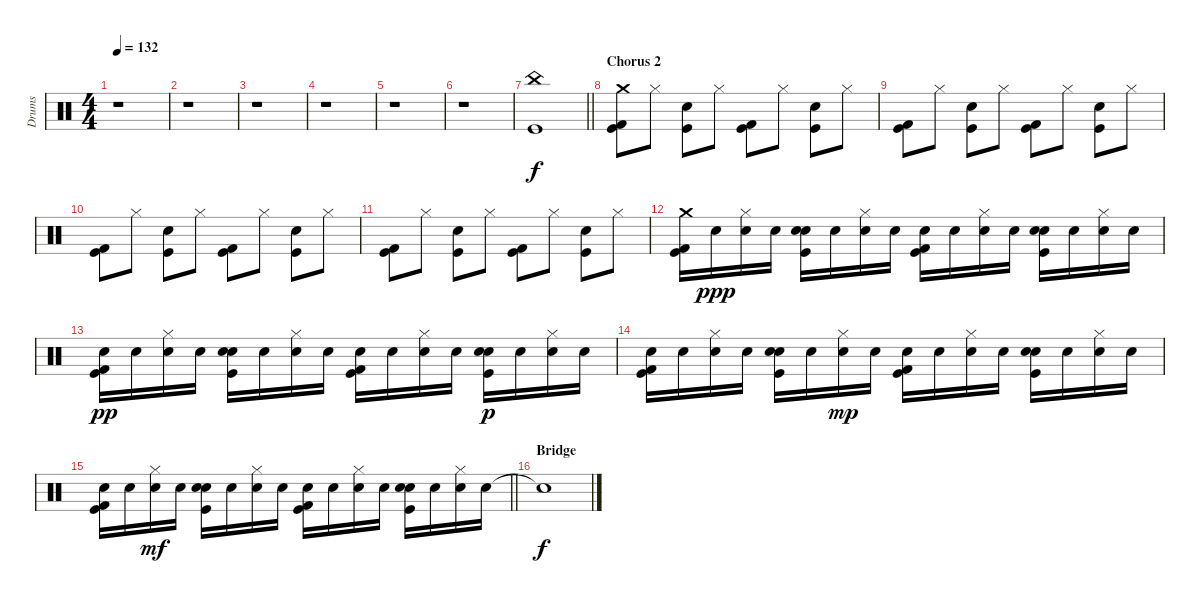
\track ("Drums" "Drums") {instrument percussion}
\staff {score}
\articulation defaults
\ts (4 4)
\tempo 132
\clef neutral
\ks c
r.1{dy f} |
r.1 |
r.1 |
r.1 |
r.1 |
r.1 |
\barLineRight lightlight
("Kick (hit)" "China (hit)").1 |
\section ("" "Chorus 2")
("Crash medium (hit)" "Kick (hit)" "Kick (hit) 2").8 "Hi-Hat (closed)".8 ("Hand Clap (hit)" "Kick (hit)").8 "Hi-Hat (closed)".8 ("Kick (hit) 2" "Kick (hit)").8 "Hi-Hat (closed)".8 ("Kick (hit)" "Hand Clap (hit)").8 "Hi-Hat (closed)".8 |
("Kick (hit) 2" "Kick (hit)").8 "Hi-Hat (closed)".8 ("Kick (hit)" "Hand Clap (hit)").8 "Hi-Hat (closed)".8 ("Kick (hit)" "Kick (hit) 2").8 "Hi-Hat (closed)".8 ("Kick (hit)" "Hand Clap (hit)").8 "Hi-Hat (closed)".8 |
("Kick (hit)" "Kick (hit) 2").8 "Hi-Hat (closed)".8 ("Hand Clap (hit)" "Kick (hit)").8 "Hi-Hat (closed)".8 ("Kick (hit)" "Kick (hit) 2").8 "Hi-Hat (closed)".8 ("Kick (hit)" "Hand Clap (hit)").8 "Hi-Hat (closed)".8 |
("Kick (hit)" "Kick (hit) 2").8 "Hi-Hat (closed)".8 ("Hand Clap (hit)" "Kick (hit)").8 "Hi-Hat (closed)".8 ("Kick (hit)" "Kick (hit) 2").8 "Hi-Hat (closed)".8 ("Kick (hit)" "Hand Clap (hit)").8 "Hi-Hat (closed)".8 |
("Crash medium (hit)" "Kick (hit)" "Kick (hit) 2").16 "Electric Snare (hit)".16{dy ppp} ("Electric Snare (hit)" "Hi-Hat (closed)").16 "Electric Snare (hit)".16 ("Electric Snare (hit)" "Hand Clap (hit)" "Kick (hit)").16 "Electric Snare (hit)".16 ("Electric Snare (hit)" "Hi-Hat (closed)").16 "Electric Snare (hit)".16 ("Electric Snare (hit)" "Kick (hit)" "Kick (hit) 2").16 "Electric Snare (hit)".16 ("Hi-Hat (closed)" "Electric Snare (hit)").16 "Electric Snare (hit)".16 ("Electric Snare (hit)" "Kick (hit)" "Hand Clap (hit)").16 "Electric Snare (hit)".16 ("Hi-Hat (closed)" "Electric Snare (hit)").16 "Electric Snare (hit)".16 |
("Electric Snare (hit)" "Kick (hit) 2" "Kick (hit)").16{dy pp} "Electric Snare (hit)".16 ("Electric Snare (hit)" "Hi-Hat (closed)").16 "Electric Snare (hit)".16 ("Electric Snare (hit)" "Kick (hit)" "Hand Clap (hit)").16 "Electric Snare (hit)".16 ("Electric Snare (hit)" "Hi-Hat (closed)").16 "Electric Snare (hit)".16 ("Kick (hit)" "Electric Snare (hit)" "Kick (hit) 2").16 "Electric Snare (hit)".16 ("Electric Snare (hit)" "Hi-Hat (closed)").16 "Electric Snare (hit)".16 ("Hand Clap (hit)" "Kick (hit)" "Electric Snare (hit)").16{dy p} "Electric Snare (hit)".16 ("Electric Snare (hit)" "Hi-Hat (closed)").16 "Electric Snare (hit)".16 |
("Kick (hit)" "Electric Snare (hit)" "Kick (hit) 2").16 "Electric Snare (hit)".16 ("Electric Snare (hit)" "Hi-Hat (closed)").16 "Electric Snare (hit)".16 ("Kick (hit)" "Hand Clap (hit)" "Electric Snare (hit)").16 "Electric Snare (hit)".16 ("Electric Snare (hit)" "Hi-Hat (closed)").16{dy mp} "Electric Snare (hit)".16 ("Kick (hit) 2" "Kick (hit)" "Electric Snare (hit)").16 "Electric Snare (hit)".16 ("Electric Snare (hit)" "Hi-Hat (closed)").16 "Electric Snare (hit)".16 ("Kick (hit)" "Hand Clap (hit)" "Electric Snare (hit)").16 "Electric Snare (hit)".16 ("Hi-Hat (closed)" "Electric Snare (hit)").16 "Electric Snare (hit)".16 |
\barLineRight lightlight
("Kick (hit) 2" "Kick (hit)" "Electric Snare (hit)").16 "Electric Snare (hit)".16 ("Hi-Hat (closed)" "Electric Snare (hit)").16{dy mf} "Electric Snare (hit)".16 ("Kick (hit)" "Electric Snare (hit)" "Hand Clap (hit)").16 "Electric Snare (hit)".16 ("Hi-Hat (closed)" "Electric Snare (hit)").16 "Electric Snare (hit)".16 ("Kick (hit) 2" "Kick (hit)" "Electric Snare (hit)").16 "Electric Snare (hit)".16 ("Hi-Hat (closed)" "Electric Snare (hit)").16 "Electric Snare (hit)".16 ("Kick (hit)" "Electric Snare (hit)" "Hand Clap (hit)").16 "Electric Snare (hit)".16 ("Hi-Hat (closed)" "Electric Snare (hit)").16 "Electric Snare (hit)".16 |
\section ("" "Bridge")
"Snare (hit)"{t}.1{dy f}
